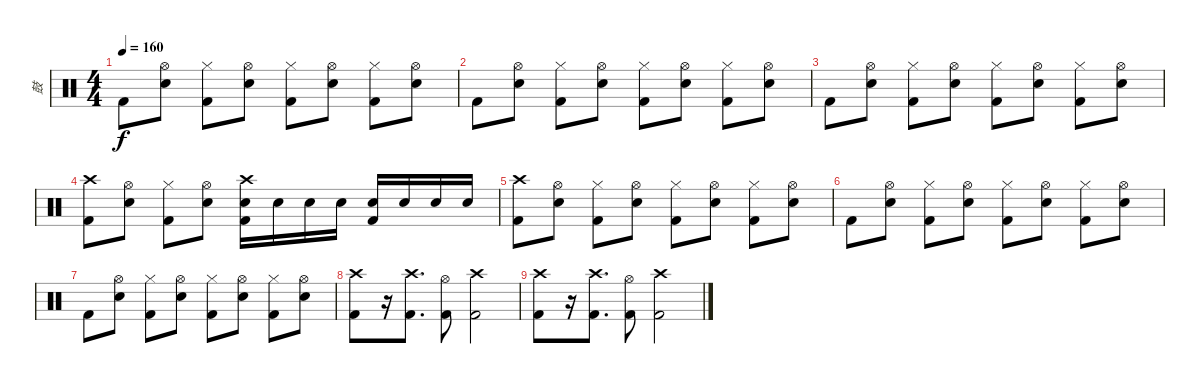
\track ("鼓" "鼓") {instrument percussion}
\staff {score}
\articulation defaults
\ts (4 4)
\tempo 160
\clef neutral
\ks c "Kick (hit) 2".8{dy f}
("Hi-Hat (open)" "Electric Snare (hit)").8 ("Hi-Hat (closed)" "Kick (hit) 2").8 ("Hi-Hat (open)" "Electric Snare (hit)").8 ("Hi-Hat (closed)" "Kick (hit) 2").8 ("Hi-Hat (open)" "Electric Snare (hit)").8 ("Hi-Hat (closed)" "Kick (hit) 2").8 ("Hi-Hat (open)" "Electric Snare (hit)").8 |
"Kick (hit) 2".8 ("Hi-Hat (open)" "Electric Snare (hit)").8 ("Hi-Hat (closed)" "Kick (hit) 2").8 ("Hi-Hat (open)" "Electric Snare (hit)").8 ("Hi-Hat (closed)" "Kick (hit) 2").8 ("Hi-Hat (open)" "Electric Snare (hit)").8 ("Hi-Hat (closed)" "Kick (hit) 2").8 ("Hi-Hat (open)" "Electric Snare (hit)").8 |
"Kick (hit) 2".8 ("Hi-Hat (open)" "Electric Snare (hit)").8 ("Hi-Hat (closed)" "Kick (hit) 2").8 ("Hi-Hat (open)" "Electric Snare (hit)").8 ("Hi-Hat (closed)" "Kick (hit) 2").8 ("Hi-Hat (open)" "Electric Snare (hit)").8 ("Hi-Hat (closed)" "Kick (hit) 2").8 ("Hi-Hat (open)" "Electric Snare (hit)").8 |
("Crash high (hit)" "Kick (hit) 2").8 ("Hi-Hat (open)" "Electric Snare (hit)").8 ("Hi-Hat (closed)" "Kick (hit) 2").8 ("Hi-Hat (open)" "Electric Snare (hit)").8 ("Crash high (hit)" "Electric Snare (hit)" "Kick (hit) 2").16 "Electric Snare (hit)".16 "Electric Snare (hit)".16 "Electric Snare (hit)".16 ("Electric Snare (hit)" "Kick (hit) 2").16 "Electric Snare (hit)".16 "Electric Snare (hit)".16 "Electric Snare (hit)".16 |
("Crash high (hit)" "Kick (hit) 2").8 ("Hi-Hat (open)" "Electric Snare (hit)").8 ("Hi-Hat (closed)" "Kick (hit) 2").8 ("Hi-Hat (open)" "Electric Snare (hit)").8 ("Hi-Hat (closed)" "Kick (hit) 2").8 ("Hi-Hat (open)" "Electric Snare (hit)").8 ("Hi-Hat (closed)" "Kick (hit) 2").8 ("Hi-Hat (open)" "Electric Snare (hit)").8 |
"Kick (hit) 2".8 ("Hi-Hat (open)" "Electric Snare (hit)").8 ("Hi-Hat (closed)" "Kick (hit) 2").8 ("Hi-Hat (open)" "Electric Snare (hit)").8 ("Hi-Hat (closed)" "Kick (hit) 2").8 ("Hi-Hat (open)" "Electric Snare (hit)").8 ("Hi-Hat (closed)" "Kick (hit) 2").8 ("Hi-Hat (open)" "Electric Snare (hit)").8 |
"Kick (hit) 2".8 ("Hi-Hat (open)" "Electric Snare (hit)").8 ("Hi-Hat (closed)" "Kick (hit) 2").8 ("Hi-Hat (open)" "Electric Snare (hit)").8 ("Hi-Hat (closed)" "Kick (hit) 2").8 ("Hi-Hat (open)" "Electric Snare (hit)").8 ("Hi-Hat (closed)" "Kick (hit) 2").8 ("Hi-Hat (open)" "Electric Snare (hit)").8 |
("Crash high (hit)" "Kick (hit) 2").8 r.16 ("Crash high (hit)" "Kick (hit) 2").8{d} ("Hi-Hat (open)" "Kick (hit) 2").8 ("Crash high (hit)" "Kick (hit) 2").2 |
("Crash high (hit)" "Kick (hit) 2").8 r.16 ("Crash high (hit)" "Kick (hit) 2").8{d} ("Hi-Hat (open)" "Kick (hit) 2").8 ("Crash high (hit)" "Kick (hit) 2").2
